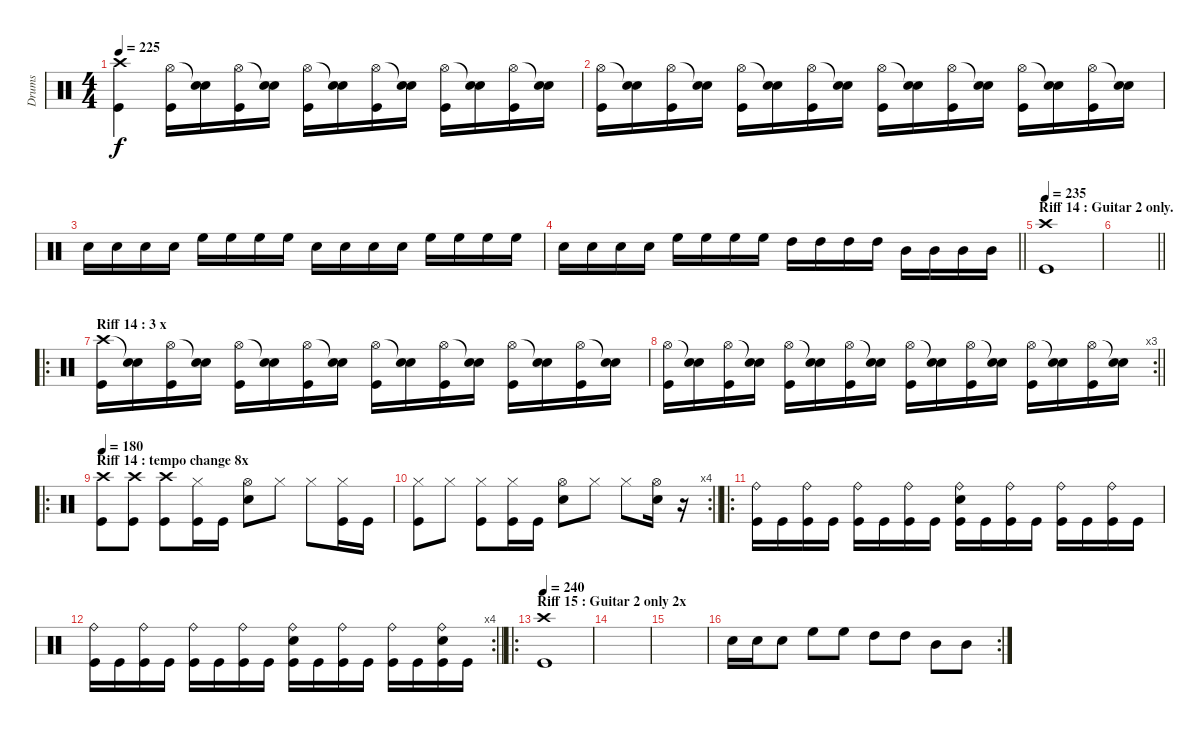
\track ("Drums" "Drums") {instrument percussion}
\staff {score}
\articulation defaults
\ts (4 4)
\tempo 225
\clef neutral
\ks c
("Crash high (hit)" "Kick (hit)").4{dy f} ("Hi-Hat (open)" "Kick (hit)").16 ("Snare (hit)"{t} "Electric Snare (hit)").16 ("Hi-Hat (open)" "Kick (hit)").16 ("Snare (hit)"{t} "Electric Snare (hit)").16 ("Hi-Hat (open)" "Kick (hit)").16 ("Snare (hit)"{t} "Electric Snare (hit)").16 ("Hi-Hat (open)" "Kick (hit)").16 ("Snare (hit)"{t} "Electric Snare (hit)").16 ("Hi-Hat (open)" "Kick (hit)").16 ("Snare (hit)"{t} "Electric Snare (hit)").16 ("Hi-Hat (open)" "Kick (hit)").16 ("Snare (hit)"{t} "Electric Snare (hit)").16 |
("Hi-Hat (open)" "Kick (hit)").16 ("Snare (hit)"{t} "Electric Snare (hit)").16 ("Hi-Hat (open)" "Kick (hit)").16 ("Snare (hit)"{t} "Electric Snare (hit)").16 ("Hi-Hat (open)" "Kick (hit)").16 ("Snare (hit)"{t} "Electric Snare (hit)").16 ("Hi-Hat (open)" "Kick (hit)").16 ("Snare (hit)"{t} "Electric Snare (hit)").16 ("Hi-Hat (open)" "Kick (hit)").16 ("Snare (hit)"{t} "Electric Snare (hit)").16 ("Hi-Hat (open)" "Kick (hit)").16 ("Snare (hit)"{t} "Electric Snare (hit)").16 ("Hi-Hat (open)" "Kick (hit)").16 ("Snare (hit)"{t} "Electric Snare (hit)").16 ("Hi-Hat (open)" "Kick (hit)").16 ("Snare (hit)"{t} "Electric Snare (hit)").16 |
"Electric Snare (hit)".16 "Electric Snare (hit)".16 "Electric Snare (hit)".16 "Electric Snare (hit)".16 "High Floor Tom (hit)".16 "High Floor Tom (hit)".16 "High Floor Tom (hit)".16 "High Floor Tom (hit)".16 "Electric Snare (hit)".16 "Electric Snare (hit)".16 "Electric Snare (hit)".16 "Electric Snare (hit)".16 "High Floor Tom (hit)".16 "High Floor Tom (hit)".16 "High Floor Tom (hit)".16 "High Floor Tom (hit)".16 |
\barLineRight lightlight "Electric Snare (hit)".16 "Electric Snare (hit)".16 "Electric Snare (hit)".16 "Electric Snare (hit)".16 "High Floor Tom (hit)".16 "High Floor Tom (hit)".16 "High Floor Tom (hit)".16 "High Floor Tom (hit)".16 "High Tom (hit)".16 "High Tom (hit)".16 "High Tom (hit)".16 "High Tom (hit)".16 "Mid Tom (hit)".16 "Mid Tom (hit)".16 "Mid Tom (hit)".16 "Mid Tom (hit)".16
|
\section ("" "Riff 14 : Guitar 2 only.")
\tempo 235
("Crash high (hit)" "Kick (hit)").1 |
\barLineRight lightlight
|
\ro
\section ("" "Riff 14 : 3 x")
("Crash high (hit)" "Kick (hit)").16 ("Snare (hit)"{t} "Electric Snare (hit)").16 ("Hi-Hat (open)" "Kick (hit)").16 ("Snare (hit)"{t} "Electric Snare (hit)").16 ("Hi-Hat (open)" "Kick (hit)").16 ("Snare (hit)"{t} "Electric Snare (hit)").16 ("Hi-Hat (open)" "Kick (hit)").16 ("Snare (hit)"{t} "Electric Snare (hit)").16 ("Hi-Hat (open)" "Kick (hit)").16 ("Snare (hit)"{t} "Electric Snare (hit)").16 ("Hi-Hat (open)" "Kick (hit)").16 ("Snare (hit)"{t} "Electric Snare (hit)").16 ("Hi-Hat (open)" "Kick (hit)").16 ("Snare (hit)"{t} "Electric Snare (hit)").16 ("Hi-Hat (open)" "Kick (hit)").16 ("Snare (hit)"{t} "Electric Snare (hit)").16 |
\rc 3
\barLineRight lightlight
("Hi-Hat (open)" "Kick (hit)").16 ("Snare (hit)"{t} "Electric Snare (hit)").16 ("Hi-Hat (open)" "Kick (hit)").16 ("Snare (hit)"{t} "Electric Snare (hit)").16 ("Hi-Hat (open)" "Kick (hit)").16 ("Snare (hit)"{t} "Electric Snare (hit)").16 ("Hi-Hat (open)" "Kick (hit)").16 ("Snare (hit)"{t} "Electric Snare (hit)").16 ("Hi-Hat (open)" "Kick (hit)").16 ("Snare (hit)"{t} "Electric Snare (hit)").16 ("Hi-Hat (open)" "Kick (hit)").16 ("Snare (hit)"{t} "Electric Snare (hit)").16 ("Hi-Hat (open)" "Kick (hit)").16 ("Snare (hit)"{t} "Electric Snare (hit)").16 ("Hi-Hat (open)" "Kick (hit)").16 ("Snare (hit)"{t} "Electric Snare (hit)").16 |
\ro
\section ("" "Riff 14 : tempo change 8x")
\tempo 180
("Crash high (hit)" "Kick (hit)").8 ("Crash high (hit)" "Kick (hit)").8 ("Crash high (hit)" "Kick (hit)").8 ("Hi-Hat (closed)" "Kick (hit)").16 "Kick (hit)".16 ("Hi-Hat (open)" "Electric Snare (hit)").8 "Hi-Hat (closed)".8 "Hi-Hat (closed)".8 ("Hi-Hat (closed)" "Kick (hit)").16 "Kick (hit)".16 |
\rc 4
\barLineRight lightlight
("Hi-Hat (closed)" "Kick (hit)").8 "Hi-Hat (closed)".8 ("Hi-Hat (closed)" "Kick (hit)").8 ("Hi-Hat (closed)" "Kick (hit)").16 "Kick (hit)".16 ("Hi-Hat (open)" "Electric Snare (hit)").8 "Hi-Hat (closed)".8 "Hi-Hat (closed)".8 ("Hi-Hat (open)" "Electric Snare (hit)").16 r.16 |
\ro
("Ride (bell)" "Kick (hit)").16 "Kick (hit)".16 ("Ride (bell)" "Kick (hit)").16 "Kick (hit)".16 ("Ride (bell)" "Kick (hit)").16 "Kick (hit)".16 ("Ride (bell)" "Kick (hit)").16 "Kick (hit)".16 ("Ride (bell)" "Electric Snare (hit)" "Kick (hit)").16 "Kick (hit)".16 ("Ride (bell)" "Kick (hit)").16 "Kick (hit)".16 ("Ride (bell)" "Kick (hit)").16 "Kick (hit)".16 ("Ride (bell)" "Kick (hit)").16 "Kick (hit)".16 |
\rc 4
\barLineRight lightlight
("Ride (bell)" "Kick (hit)").16 "Kick (hit)".16 ("Ride (bell)" "Kick (hit)").16 "Kick (hit)".16 ("Ride (bell)" "Kick (hit)").16 "Kick (hit)".16 ("Ride (bell)" "Kick (hit)").16 "Kick (hit)".16 ("Ride (bell)" "Electric Snare (hit)" "Kick (hit)").16 "Kick (hit)".16 ("Ride (bell)" "Kick (hit)").16 "Kick (hit)".16 ("Ride (bell)" "Kick (hit)").16 "Kick (hit)".16 ("Ride (bell)" "Electric Snare (hit)" "Kick (hit)").16 "Kick (hit)".16 |
\ro
\section ("" "Riff 15 : Guitar 2 only 2x ")
\tempo 250
\tempo 240
("Crash high (hit)" "Kick (hit)").1 |
|
|
\rc 2 "Electric Snare (hit)".16 "Electric Snare (hit)".16 "Electric Snare (hit)".8 "High Floor Tom (hit)".8 "High Floor Tom (hit)".8 "High Tom (hit)".8 "High Tom (hit)".8 "Mid Tom (hit)".8 "Mid Tom (hit)".8
